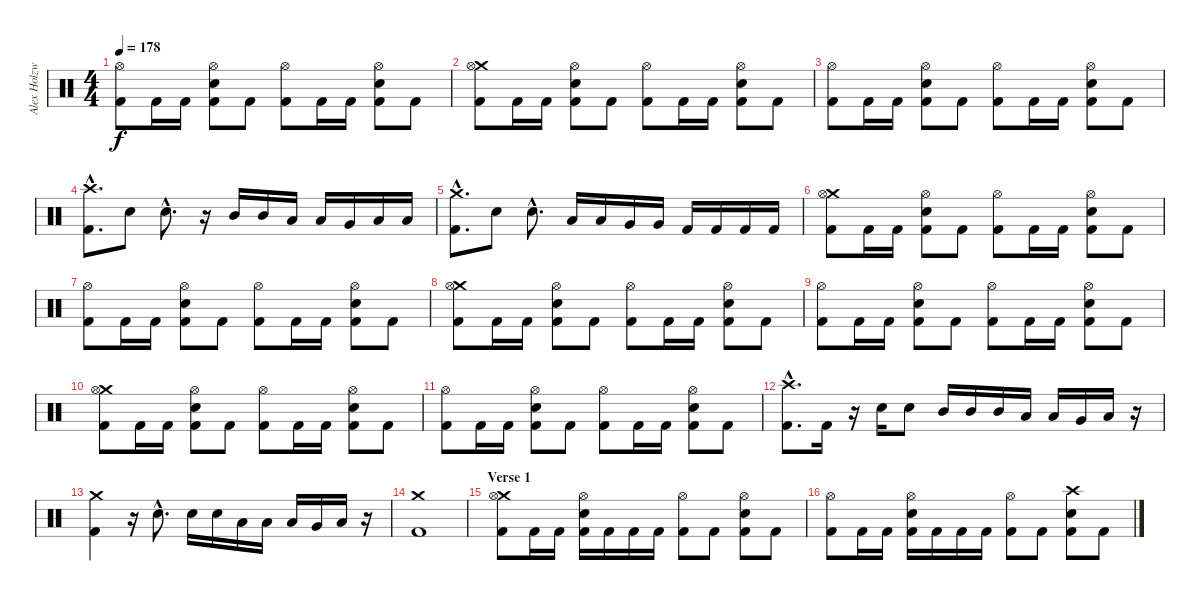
\track ("Alex Holzwarth" "Alex Holzw") {instrument percussion}
\staff {score}
\articulation defaults
\ts (4 4)
\tempo 178
\clef neutral
\ks c
("Hi-Hat (open)" "Kick (hit) 2").8{dy f} "Kick (hit) 2".16 "Kick (hit) 2".16 ("Hi-Hat (open)" "Snare (hit) 2" "Kick (hit) 2").8 "Kick (hit) 2".8 ("Hi-Hat (open)" "Kick (hit) 2").8 "Kick (hit) 2".16 "Kick (hit) 2".16 ("Hi-Hat (open)" "Snare (hit) 2" "Kick (hit) 2").8 "Kick (hit) 2".8 |
("Crash medium (hit)" "Hi-Hat (open)" "Kick (hit) 2").8 "Kick (hit) 2".16 "Kick (hit) 2".16 ("Hi-Hat (open)" "Snare (hit) 2" "Kick (hit) 2").8 "Kick (hit) 2".8 ("Hi-Hat (open)" "Kick (hit) 2").8 "Kick (hit) 2".16 "Kick (hit) 2".16 ("Hi-Hat (open)" "Snare (hit) 2" "Kick (hit) 2").8 "Kick (hit) 2".8 |
("Hi-Hat (open)" "Kick (hit) 2").8 "Kick (hit) 2".16 "Kick (hit) 2".16 ("Hi-Hat (open)" "Snare (hit) 2" "Kick (hit) 2").8 "Kick (hit) 2".8 ("Hi-Hat (open)" "Kick (hit) 2").8 "Kick (hit) 2".16 "Kick (hit) 2".16 ("Hi-Hat (open)" "Snare (hit) 2" "Kick (hit) 2").8 "Kick (hit) 2".8 |
("Crash high (hit)"{hac} "Kick (hit) 2"{hac}).8{d} "Snare (hit) 2".8 "Snare (hit) 2"{hac}.8{d} r.16 "Mid Tom (hit)".16 "Mid Tom (hit)".16 "Low Tom (hit)".16 "Low Tom (hit)".16 "Very Low Tom (hit)".16 "Low Floor Tom (hit)".16 "Low Floor Tom (hit)".16 |
("Crash medium (hit)"{hac} "Kick (hit) 2"{hac}).8{d} "Snare (hit) 2".8 "Snare (hit) 2"{hac}.8{d} "Low Tom (hit)".16 "Low Tom (hit)".16 "Very Low Tom (hit)".16 "Very Low Tom (hit)".16 "Kick (hit) 2".16 "Kick (hit) 2".16 "Kick (hit) 2".16 "Kick (hit) 2".16 |
("Crash medium (hit)" "Hi-Hat (open)" "Kick (hit) 2").8 "Kick (hit) 2".16 "Kick (hit) 2".16 ("Hi-Hat (open)" "Snare (hit) 2" "Kick (hit) 2").8 "Kick (hit) 2".8 ("Hi-Hat (open)" "Kick (hit) 2").8 "Kick (hit) 2".16 "Kick (hit) 2".16 ("Hi-Hat (open)" "Snare (hit) 2" "Kick (hit) 2").8 "Kick (hit) 2".8 |
("Hi-Hat (open)" "Kick (hit) 2").8 "Kick (hit) 2".16 "Kick (hit) 2".16 ("Hi-Hat (open)" "Snare (hit) 2" "Kick (hit) 2").8 "Kick (hit) 2".8 ("Hi-Hat (open)" "Kick (hit) 2").8 "Kick (hit) 2".16 "Kick (hit) 2".16 ("Hi-Hat (open)" "Snare (hit) 2" "Kick (hit) 2").8 "Kick (hit) 2".8 |
("Crash medium (hit)" "Hi-Hat (open)" "Kick (hit) 2").8 "Kick (hit) 2".16 "Kick (hit) 2".16 ("Hi-Hat (open)" "Snare (hit) 2" "Kick (hit) 2").8 "Kick (hit) 2".8 ("Hi-Hat (open)" "Kick (hit) 2").8 "Kick (hit) 2".16 "Kick (hit) 2".16 ("Hi-Hat (open)" "Snare (hit) 2" "Kick (hit) 2").8 "Kick (hit) 2".8 |
("Hi-Hat (open)" "Kick (hit) 2").8 "Kick (hit) 2".16 "Kick (hit) 2".16 ("Hi-Hat (open)" "Snare (hit) 2" "Kick (hit) 2").8 "Kick (hit) 2".8 ("Hi-Hat (open)" "Kick (hit) 2").8 "Kick (hit) 2".16 "Kick (hit) 2".16 ("Hi-Hat (open)" "Snare (hit) 2" "Kick (hit) 2").8 "Kick (hit) 2".8 |
("Crash medium (hit)" "Hi-Hat (open)" "Kick (hit) 2").8 "Kick (hit) 2".16 "Kick (hit) 2".16 ("Hi-Hat (open)" "Snare (hit) 2" "Kick (hit) 2").8 "Kick (hit) 2".8 ("Hi-Hat (open)" "Kick (hit) 2").8 "Kick (hit) 2".16 "Kick (hit) 2".16 ("Hi-Hat (open)" "Snare (hit) 2" "Kick (hit) 2").8 "Kick (hit) 2".8 |
("Hi-Hat (open)" "Kick (hit) 2").8 "Kick (hit) 2".16 "Kick (hit) 2".16 ("Hi-Hat (open)" "Snare (hit) 2" "Kick (hit) 2").8 "Kick (hit) 2".8 ("Hi-Hat (open)" "Kick (hit) 2").8 "Kick (hit) 2".16 "Kick (hit) 2".16 ("Hi-Hat (open)" "Snare (hit) 2" "Kick (hit) 2").8 "Kick (hit) 2".8 |
("Crash high (hit)"{hac} "Kick (hit) 2"{hac}).8{d} "Kick (hit) 2".16 r.16 "Snare (hit) 2".16 "Snare (hit) 2".8 "Mid Tom (hit)".16 "Mid Tom (hit)".16 "Mid Tom (hit)".16 "Low Tom (hit)".16 "Low Tom (hit)".16 "Very Low Tom (hit)".16 "Low Floor Tom (hit)".16 r.16 |
("Crash medium (hit)" "Kick (hit) 2").4 r.16 "Snare (hit) 2"{hac}.8{d} "Snare (hit) 2".16 "Snare (hit) 2".16 "Low Tom (hit)".16 "Low Tom (hit)".16 "Low Tom (hit)".16 "Very Low Tom (hit)".16 "Low Floor Tom (hit)".16 r.16 |
("Crash medium (hit)" "Kick (hit) 2").1 |
\section ("" "Verse 1")
("Crash medium (hit)" "Hi-Hat (open)" "Kick (hit) 2").8 "Kick (hit) 2".16 "Kick (hit) 2".16 ("Hi-Hat (open)" "Snare (hit) 2" "Kick (hit) 2").16 "Kick (hit) 2".16 "Kick (hit) 2".16 "Kick (hit) 2".16 ("Hi-Hat (open)" "Kick (hit) 2").8 "Kick (hit) 2".8 ("Hi-Hat (open)" "Snare (hit) 2" "Kick (hit) 2").8 "Kick (hit) 2".8 |
("Hi-Hat (open)" "Kick (hit) 2").8 "Kick (hit) 2".16 "Kick (hit) 2".16 ("Hi-Hat (open)" "Snare (hit) 2" "Kick (hit) 2").16 "Kick (hit) 2".16 "Kick (hit) 2".16 "Kick (hit) 2".16 ("Hi-Hat (open)" "Kick (hit) 2").8 "Kick (hit) 2".8 ("Crash high (hit)" "Snare (hit) 2" "Kick (hit) 2").8 "Kick (hit) 2".8
